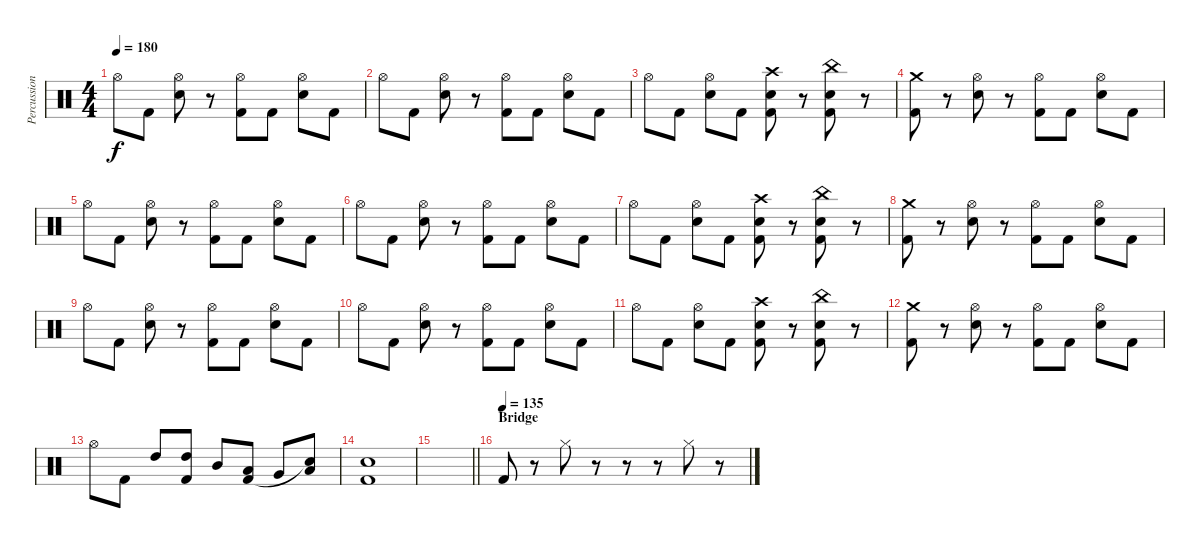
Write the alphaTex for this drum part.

\track ("Percussion" "Percussion") {instrument percussion}
\staff {score}
\articulation defaults
\ts (4 4)
\tempo 180
\clef neutral
\ks c "Hi-Hat (open)".8{dy f} "Kick (hit) 2".8
("Hi-Hat (open)" "Electric Snare (hit)").8 r.8 ("Hi-Hat (open)" "Kick (hit) 2").8 "Kick (hit) 2".8 ("Hi-Hat (open)" "Electric Snare (hit)").8 "Kick (hit) 2".8 |
"Hi-Hat (open)".8 "Kick (hit) 2".8 ("Hi-Hat (open)" "Electric Snare (hit)").8 r.8 ("Hi-Hat (open)" "Kick (hit) 2").8 "Kick (hit) 2".8 ("Hi-Hat (open)" "Electric Snare (hit)").8 "Kick (hit) 2".8 |
"Hi-Hat (open)".8 "Kick (hit) 2".8 ("Hi-Hat (open)" "Electric Snare (hit)").8 "Kick (hit) 2".8 ("Crash high (hit)" "Electric Snare (hit)" "Kick (hit) 2").8 r.8 ("China (hit)" "Electric Snare (hit)" "Kick (hit) 2").8 r.8 |
("Crash medium (hit)" "Kick (hit) 2").8 r.8 ("Hi-Hat (open)" "Electric Snare (hit)").8 r.8 ("Hi-Hat (open)" "Kick (hit) 2").8 "Kick (hit) 2".8 ("Hi-Hat (open)" "Electric Snare (hit)").8 "Kick (hit) 2".8 |
"Hi-Hat (open)".8 "Kick (hit) 2".8 ("Hi-Hat (open)" "Electric Snare (hit)").8 r.8 ("Hi-Hat (open)" "Kick (hit) 2").8 "Kick (hit) 2".8 ("Hi-Hat (open)" "Electric Snare (hit)").8 "Kick (hit) 2".8 |
"Hi-Hat (open)".8 "Kick (hit) 2".8 ("Hi-Hat (open)" "Electric Snare (hit)").8 r.8 ("Hi-Hat (open)" "Kick (hit) 2").8 "Kick (hit) 2".8 ("Hi-Hat (open)" "Electric Snare (hit)").8 "Kick (hit) 2".8 |
"Hi-Hat (open)".8 "Kick (hit) 2".8 ("Hi-Hat (open)" "Electric Snare (hit)").8 "Kick (hit) 2".8 ("Crash high (hit)" "Electric Snare (hit)" "Kick (hit) 2").8 r.8 ("China (hit)" "Electric Snare (hit)" "Kick (hit) 2").8 r.8 |
("Crash medium (hit)" "Kick (hit) 2").8 r.8 ("Hi-Hat (open)" "Electric Snare (hit)").8 r.8 ("Hi-Hat (open)" "Kick (hit) 2").8 "Kick (hit) 2".8 ("Hi-Hat (open)" "Electric Snare (hit)").8 "Kick (hit) 2".8 |
"Hi-Hat (open)".8 "Kick (hit) 2".8 ("Hi-Hat (open)" "Electric Snare (hit)").8 r.8 ("Hi-Hat (open)" "Kick (hit) 2").8 "Kick (hit) 2".8 ("Hi-Hat (open)" "Electric Snare (hit)").8 "Kick (hit) 2".8 |
"Hi-Hat (open)".8 "Kick (hit) 2".8 ("Hi-Hat (open)" "Electric Snare (hit)").8 r.8 ("Hi-Hat (open)" "Kick (hit) 2").8 "Kick (hit) 2".8 ("Hi-Hat (open)" "Electric Snare (hit)").8 "Kick (hit) 2".8 |
"Hi-Hat (open)".8 "Kick (hit) 2".8 ("Hi-Hat (open)" "Electric Snare (hit)").8 "Kick (hit) 2".8 ("Crash high (hit)" "Electric Snare (hit)" "Kick (hit) 2").8 r.8 ("China (hit)" "Electric Snare (hit)" "Kick (hit) 2").8 r.8 |
("Crash medium (hit)" "Kick (hit) 2").8 r.8 ("Hi-Hat (open)" "Electric Snare (hit)").8 r.8 ("Hi-Hat (open)" "Kick (hit) 2").8 "Kick (hit) 2".8 ("Hi-Hat (open)" "Electric Snare (hit)").8 "Kick (hit) 2".8 |
"Hi-Hat (open)".8 "Kick (hit) 2".8 "High Tom (hit)".8 ("High Tom (hit)" "Kick (hit) 2").8 "Mid Tom (hit)".8 ("Low Tom (hit)" "Kick (hit) 2").8 "Very Low Tom (hit)".8 ("Low Floor Tom (hit)" "Snare (hit)"{t}).8 |
("Electric Snare (hit)" "Kick (hit) 2").1 |
\barLineRight lightlight
|
\section ("" "Bridge")
\tempo (135)
"Kick (hit) 2".8 r.8 "Hi-Hat (closed)".8 r.8 r.8 r.8 "Hi-Hat (closed)".8 r.8
